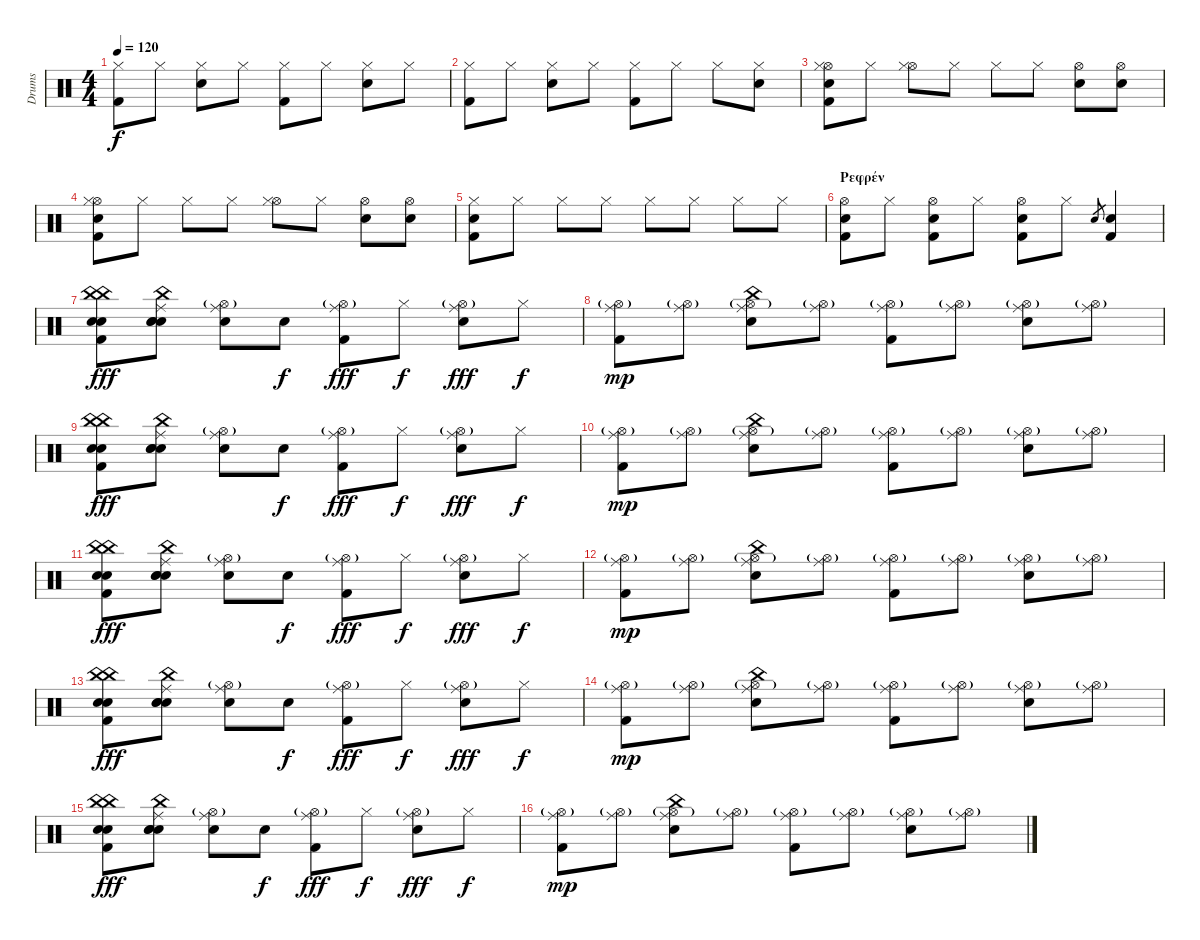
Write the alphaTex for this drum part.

\track ("Drums" "Drums") {instrument percussion}
\staff {score}
\articulation defaults
\ts (4 4)
\tempo 120
\clef neutral
\ks c
("Hi-Hat (closed)" "Kick (hit) 2").8{dy f} "Hi-Hat (closed)".8 ("Hi-Hat (closed)" "Electric Snare (hit)").8 "Hi-Hat (closed)".8 ("Hi-Hat (closed)" "Kick (hit) 2").8 "Hi-Hat (closed)".8 ("Hi-Hat (closed)" "Electric Snare (hit)").8 "Hi-Hat (closed)".8 |
("Hi-Hat (closed)" "Kick (hit) 2").8 "Hi-Hat (closed)".8 ("Hi-Hat (closed)" "Electric Snare (hit)").8 "Hi-Hat (closed)".8 ("Hi-Hat (closed)" "Kick (hit) 2").8 "Hi-Hat (closed)".8 "Hi-Hat (closed)".8 ("Hi-Hat (closed)" "Electric Snare (hit)").8 |
("Hi-Hat (open)" "Hi-Hat (closed)" "Electric Snare (hit)" "Kick (hit) 2").8 "Hi-Hat (closed)".8 ("Hi-Hat (open)" "Hi-Hat (closed)").8 "Hi-Hat (closed)".8 "Hi-Hat (closed)".8 "Hi-Hat (closed)".8 ("Hi-Hat (open)" "Electric Snare (hit)").8 ("Hi-Hat (open)" "Electric Snare (hit)").8 |
("Hi-Hat (open)" "Hi-Hat (closed)" "Electric Snare (hit)" "Kick (hit) 2").8 "Hi-Hat (closed)".8 "Hi-Hat (closed)".8 "Hi-Hat (closed)".8 ("Hi-Hat (open)" "Hi-Hat (closed)").8 "Hi-Hat (closed)".8 ("Hi-Hat (open)" "Electric Snare (hit)").8 ("Hi-Hat (open)" "Electric Snare (hit)").8 |
("Hi-Hat (closed)" "Electric Snare (hit)" "Kick (hit) 2").8 "Hi-Hat (closed)".8 "Hi-Hat (closed)".8 "Hi-Hat (closed)".8 "Hi-Hat (closed)".8 "Hi-Hat (closed)".8 "Hi-Hat (closed)".8 "Hi-Hat (closed)".8 |
\section ("" "Ρεφρέν")
("Hi-Hat (open)" "Electric Snare (hit)" "Kick (hit) 2").8 "Hi-Hat (closed)".8 ("Hi-Hat (open)" "Electric Snare (hit)" "Kick (hit) 2").8 "Hi-Hat (closed)".8 ("Hi-Hat (open)" "Electric Snare (hit)" "Kick (hit) 2").8 "Hi-Hat (closed)".8 "Electric Snare (hit)".8{gr} ("Electric Snare (hit)" "Kick (hit) 2").4 |
("China (hit)" "China (hit)" "Hand Clap (hit)" "Hand Clap (hit)" "Kick (hit) 2").8{dy fff} ("China (hit)" "Ride (middle)" "Snare (hit)" "Hand Clap (hit)" "Hand Clap (hit)").8 ("Hi-Hat (open)"{g} "Ride (middle)" "Electric Snare (hit)").8 "Electric Snare (hit)".8{dy f} ("Hi-Hat (open)"{g} "Ride (middle)" "Kick (hit) 2").8{dy fff} "Hi-Hat (closed)".8{dy f} ("Hi-Hat (open)"{g} "Ride (middle)" "Electric Snare (hit)").8{dy fff} "Hi-Hat (closed)".8{dy f} |
("Ride (middle)" "Hi-Hat (open)"{g} "Kick (hit) 2").8{dy mp} ("Ride (middle)" "Hi-Hat (open)"{g}).8 ("Ride (middle)" "Hi-Hat (open)"{g} "Electric Snare (hit)" "China (hit)").8 ("Ride (middle)" "Hi-Hat (open)"{g}).8 ("Ride (middle)" "Hi-Hat (open)"{g} "Kick (hit) 2").8 ("Ride (middle)" "Hi-Hat (open)"{g}).8 ("Ride (middle)" "Hi-Hat (open)"{g} "Electric Snare (hit)").8 ("Ride (middle)" "Hi-Hat (open)"{g}).8 |
("China (hit)" "China (hit)" "Hand Clap (hit)" "Hand Clap (hit)" "Kick (hit) 2").8{dy fff} ("China (hit)" "Ride (middle)" "Snare (hit)" "Hand Clap (hit)" "Hand Clap (hit)").8 ("Hi-Hat (open)"{g} "Ride (middle)" "Electric Snare (hit)").8 "Electric Snare (hit)".8{dy f} ("Hi-Hat (open)"{g} "Ride (middle)" "Kick (hit) 2").8{dy fff} "Hi-Hat (closed)".8{dy f} ("Hi-Hat (open)"{g} "Ride (middle)" "Electric Snare (hit)").8{dy fff} "Hi-Hat (closed)".8{dy f} |
("Ride (middle)" "Hi-Hat (open)"{g} "Kick (hit) 2").8{dy mp} ("Ride (middle)" "Hi-Hat (open)"{g}).8 ("Ride (middle)" "Hi-Hat (open)"{g} "Electric Snare (hit)" "China (hit)").8 ("Ride (middle)" "Hi-Hat (open)"{g}).8 ("Ride (middle)" "Hi-Hat (open)"{g} "Kick (hit) 2").8 ("Ride (middle)" "Hi-Hat (open)"{g}).8 ("Ride (middle)" "Hi-Hat (open)"{g} "Electric Snare (hit)").8 ("Ride (middle)" "Hi-Hat (open)"{g}).8 |
("China (hit)" "China (hit)" "Hand Clap (hit)" "Hand Clap (hit)" "Kick (hit) 2").8{dy fff} ("China (hit)" "Ride (middle)" "Snare (hit)" "Hand Clap (hit)" "Hand Clap (hit)").8 ("Hi-Hat (open)"{g} "Ride (middle)" "Electric Snare (hit)").8 "Electric Snare (hit)".8{dy f} ("Hi-Hat (open)"{g} "Ride (middle)" "Kick (hit) 2").8{dy fff} "Hi-Hat (closed)".8{dy f} ("Hi-Hat (open)"{g} "Ride (middle)" "Electric Snare (hit)").8{dy fff} "Hi-Hat (closed)".8{dy f} |
("Ride (middle)" "Hi-Hat (open)"{g} "Kick (hit) 2").8{dy mp} ("Ride (middle)" "Hi-Hat (open)"{g}).8 ("Ride (middle)" "Hi-Hat (open)"{g} "Electric Snare (hit)" "China (hit)").8 ("Ride (middle)" "Hi-Hat (open)"{g}).8 ("Ride (middle)" "Hi-Hat (open)"{g} "Kick (hit) 2").8 ("Ride (middle)" "Hi-Hat (open)"{g}).8 ("Ride (middle)" "Hi-Hat (open)"{g} "Electric Snare (hit)").8 ("Ride (middle)" "Hi-Hat (open)"{g}).8 |
("China (hit)" "China (hit)" "Hand Clap (hit)" "Hand Clap (hit)" "Kick (hit) 2").8{dy fff} ("China (hit)" "Ride (middle)" "Snare (hit)" "Hand Clap (hit)" "Hand Clap (hit)").8 ("Hi-Hat (open)"{g} "Ride (middle)" "Electric Snare (hit)").8 "Electric Snare (hit)".8{dy f} ("Hi-Hat (open)"{g} "Ride (middle)" "Kick (hit) 2").8{dy fff} "Hi-Hat (closed)".8{dy f} ("Hi-Hat (open)"{g} "Ride (middle)" "Electric Snare (hit)").8{dy fff} "Hi-Hat (closed)".8{dy f} |
("Ride (middle)" "Hi-Hat (open)"{g} "Kick (hit) 2").8{dy mp} ("Ride (middle)" "Hi-Hat (open)"{g}).8 ("Ride (middle)" "Hi-Hat (open)"{g} "Electric Snare (hit)" "China (hit)").8 ("Ride (middle)" "Hi-Hat (open)"{g}).8 ("Ride (middle)" "Hi-Hat (open)"{g} "Kick (hit) 2").8 ("Ride (middle)" "Hi-Hat (open)"{g}).8 ("Ride (middle)" "Hi-Hat (open)"{g} "Electric Snare (hit)").8 ("Ride (middle)" "Hi-Hat (open)"{g}).8 |
("China (hit)" "China (hit)" "Hand Clap (hit)" "Hand Clap (hit)" "Kick (hit) 2").8{dy fff} ("China (hit)" "Ride (middle)" "Snare (hit)" "Hand Clap (hit)" "Hand Clap (hit)").8 ("Hi-Hat (open)"{g} "Ride (middle)" "Electric Snare (hit)").8 "Electric Snare (hit)".8{dy f} ("Hi-Hat (open)"{g} "Ride (middle)" "Kick (hit) 2").8{dy fff} "Hi-Hat (closed)".8{dy f} ("Hi-Hat (open)"{g} "Ride (middle)" "Electric Snare (hit)").8{dy fff} "Hi-Hat (closed)".8{dy f} |
("Ride (middle)" "Hi-Hat (open)"{g} "Kick (hit) 2").8{dy mp} ("Ride (middle)" "Hi-Hat (open)"{g}).8 ("Ride (middle)" "Hi-Hat (open)"{g} "Electric Snare (hit)" "China (hit)").8 ("Ride (middle)" "Hi-Hat (open)"{g}).8 ("Ride (middle)" "Hi-Hat (open)"{g} "Kick (hit) 2").8 ("Ride (middle)" "Hi-Hat (open)"{g}).8 ("Ride (middle)" "Hi-Hat (open)"{g} "Electric Snare (hit)").8 ("Ride (middle)" "Hi-Hat (open)"{g}).8
